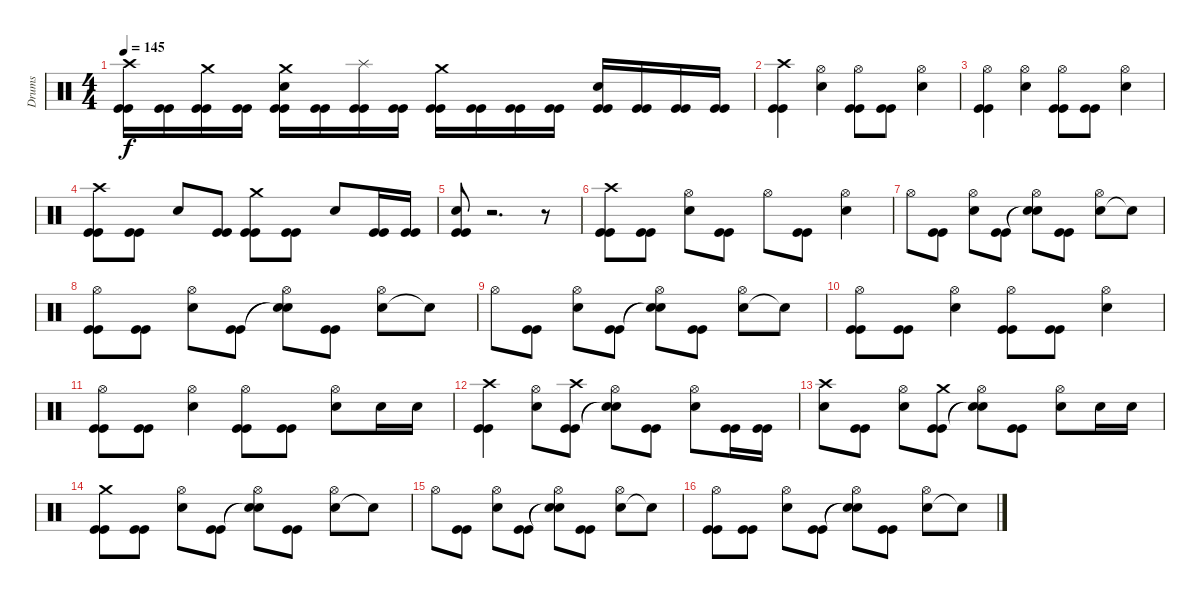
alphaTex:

\track ("Drums" "Drums") {instrument percussion}
\staff {score}
\articulation defaults
\ts (4 4)
\tempo 145
\clef neutral
\ks c
("Kick (hit)" "Kick (hit)" "Crash high (hit)").16{dy f} ("Kick (hit)" "Kick (hit)").16 ("Kick (hit)" "Kick (hit)" "Crash medium (hit)").16 ("Kick (hit)" "Kick (hit)").16 ("Kick (hit)" "Kick (hit)" "Snare (hit) 2" "Crash medium (hit)").16 ("Kick (hit)" "Kick (hit)").16 ("Kick (hit)" "Kick (hit)" "Splash (hit)").16 ("Kick (hit)" "Kick (hit)").16 ("Kick (hit)" "Kick (hit)" "Crash medium (hit)").16 ("Kick (hit)" "Kick (hit)").16 ("Kick (hit)" "Kick (hit)").16 ("Kick (hit)" "Kick (hit)").16 ("Kick (hit)" "Kick (hit)" "Snare (hit) 2").16 ("Kick (hit)" "Kick (hit)").16 ("Kick (hit)" "Kick (hit)").16 ("Kick (hit)" "Kick (hit)").16 |
("Kick (hit)" "Kick (hit)" "Crash high (hit)").4 ("Snare (hit) 2" "Hi-Hat (open)").4 ("Kick (hit)" "Kick (hit)" "Hi-Hat (open)").8 ("Kick (hit)" "Kick (hit)").8 ("Snare (hit) 2" "Hi-Hat (open)").4 |
("Kick (hit)" "Kick (hit)" "Hi-Hat (open)").4 ("Snare (hit) 2" "Hi-Hat (open)").4 ("Kick (hit)" "Kick (hit)" "Hi-Hat (open)").8 ("Kick (hit)" "Kick (hit)").8 ("Snare (hit) 2" "Hi-Hat (open)").4 |
("Kick (hit)" "Kick (hit)" "Crash high (hit)").8 ("Kick (hit)" "Kick (hit)").8 "Snare (hit) 2".8 ("Kick (hit)" "Kick (hit)").8 ("Kick (hit)" "Kick (hit)" "Crash medium (hit)").8 ("Kick (hit)" "Kick (hit)").8 "Snare (hit) 2".8 ("Kick (hit)" "Kick (hit)").16 ("Kick (hit)" "Kick (hit)").16 |
("Kick (hit)" "Kick (hit)" "Snare (hit) 2").8 r.2{d} r.8 |
("Kick (hit)" "Kick (hit)" "Crash high (hit)").8 ("Kick (hit)" "Kick (hit)").8 ("Snare (hit) 2" "Hi-Hat (open)").8 ("Kick (hit)" "Kick (hit)").8 "Hi-Hat (open)".8 ("Kick (hit)" "Kick (hit)").8 ("Snare (hit) 2" "Hi-Hat (open)").4 |
"Hi-Hat (open)".8 ("Kick (hit)" "Kick (hit)").8 ("Snare (hit) 2" "Hi-Hat (open)").8 ("Kick (hit)" "Kick (hit)").8 ("Snare (hit)"{t} "Snare (hit)"{t} "Hi-Hat (open)").8 ("Kick (hit)" "Kick (hit)").8 ("Snare (hit) 2" "Hi-Hat (open)").8 "Snare (hit)"{t}.8 |
("Kick (hit)" "Kick (hit)" "Hi-Hat (open)").8 ("Kick (hit)" "Kick (hit)").8 ("Snare (hit) 2" "Hi-Hat (open)").8 ("Kick (hit)" "Kick (hit)").8 ("Snare (hit)"{t} "Snare (hit)"{t} "Hi-Hat (open)").8 ("Kick (hit)" "Kick (hit)").8 ("Snare (hit) 2" "Hi-Hat (open)").8 "Snare (hit)"{t}.8 |
"Hi-Hat (open)".8 ("Kick (hit)" "Kick (hit)").8 ("Snare (hit) 2" "Hi-Hat (open)").8 ("Kick (hit)" "Kick (hit)").8 ("Snare (hit)"{t} "Snare (hit)"{t} "Hi-Hat (open)").8 ("Kick (hit)" "Kick (hit)").8 ("Snare (hit) 2" "Hi-Hat (open)").8 "Snare (hit)"{t}.8 |
("Kick (hit)" "Kick (hit)" "Hi-Hat (open)").8 ("Kick (hit)" "Kick (hit)").8 ("Snare (hit) 2" "Hi-Hat (open)").4 ("Kick (hit)" "Kick (hit)" "Hi-Hat (open)").8 ("Kick (hit)" "Kick (hit)").8 ("Snare (hit) 2" "Hi-Hat (open)").4 |
("Kick (hit)" "Kick (hit)" "Hi-Hat (open)").8 ("Kick (hit)" "Kick (hit)").8 ("Snare (hit) 2" "Hi-Hat (open)").4 ("Kick (hit)" "Kick (hit)" "Hi-Hat (open)").8 ("Kick (hit)" "Kick (hit)").8 ("Snare (hit) 2" "Hi-Hat (open)").8 "Snare (hit) 2".16 "Snare (hit) 2".16 |
("Kick (hit)" "Kick (hit)" "Crash high (hit)").4 ("Snare (hit) 2" "Hi-Hat (open)").8 ("Kick (hit)" "Kick (hit)" "Crash high (hit)").8 ("Snare (hit)"{t} "Snare (hit)"{t} "Hi-Hat (open)").8 ("Kick (hit)" "Kick (hit)").8 ("Snare (hit) 2" "Hi-Hat (open)").8 ("Kick (hit)" "Kick (hit)").16 ("Kick (hit)" "Kick (hit)").16 |
("Snare (hit) 2" "Crash high (hit)").8 ("Kick (hit)" "Kick (hit)").8 ("Snare (hit) 2" "Hi-Hat (open)").8 ("Kick (hit)" "Kick (hit)" "Crash medium (hit)").8 ("Snare (hit)"{t} "Snare (hit)"{t} "Hi-Hat (open)").8 ("Kick (hit)" "Kick (hit)").8 ("Snare (hit) 2" "Hi-Hat (open)").8 "Snare (hit) 2".16 "Snare (hit) 2".16 |
("Kick (hit)" "Kick (hit)" "Crash medium (hit)").8 ("Kick (hit)" "Kick (hit)").8 ("Snare (hit) 2" "Hi-Hat (open)").8 ("Kick (hit)" "Kick (hit)").8 ("Snare (hit)"{t} "Snare (hit)"{t} "Hi-Hat (open)").8 ("Kick (hit)" "Kick (hit)").8 ("Snare (hit) 2" "Hi-Hat (open)").8 "Snare (hit)"{t}.8 |
"Hi-Hat (open)".8 ("Kick (hit)" "Kick (hit)").8 ("Snare (hit) 2" "Hi-Hat (open)").8 ("Kick (hit)" "Kick (hit)").8 ("Snare (hit)"{t} "Snare (hit)"{t} "Hi-Hat (open)").8 ("Kick (hit)" "Kick (hit)").8 ("Snare (hit) 2" "Hi-Hat (open)").8 "Snare (hit)"{t}.8 |
("Kick (hit)" "Kick (hit)" "Hi-Hat (open)").8 ("Kick (hit)" "Kick (hit)").8 ("Snare (hit) 2" "Hi-Hat (open)").8 ("Kick (hit)" "Kick (hit)").8 ("Snare (hit)"{t} "Snare (hit)"{t} "Hi-Hat (open)").8 ("Kick (hit)" "Kick (hit)").8 ("Snare (hit) 2" "Hi-Hat (open)").8 "Snare (hit)"{t}.8
